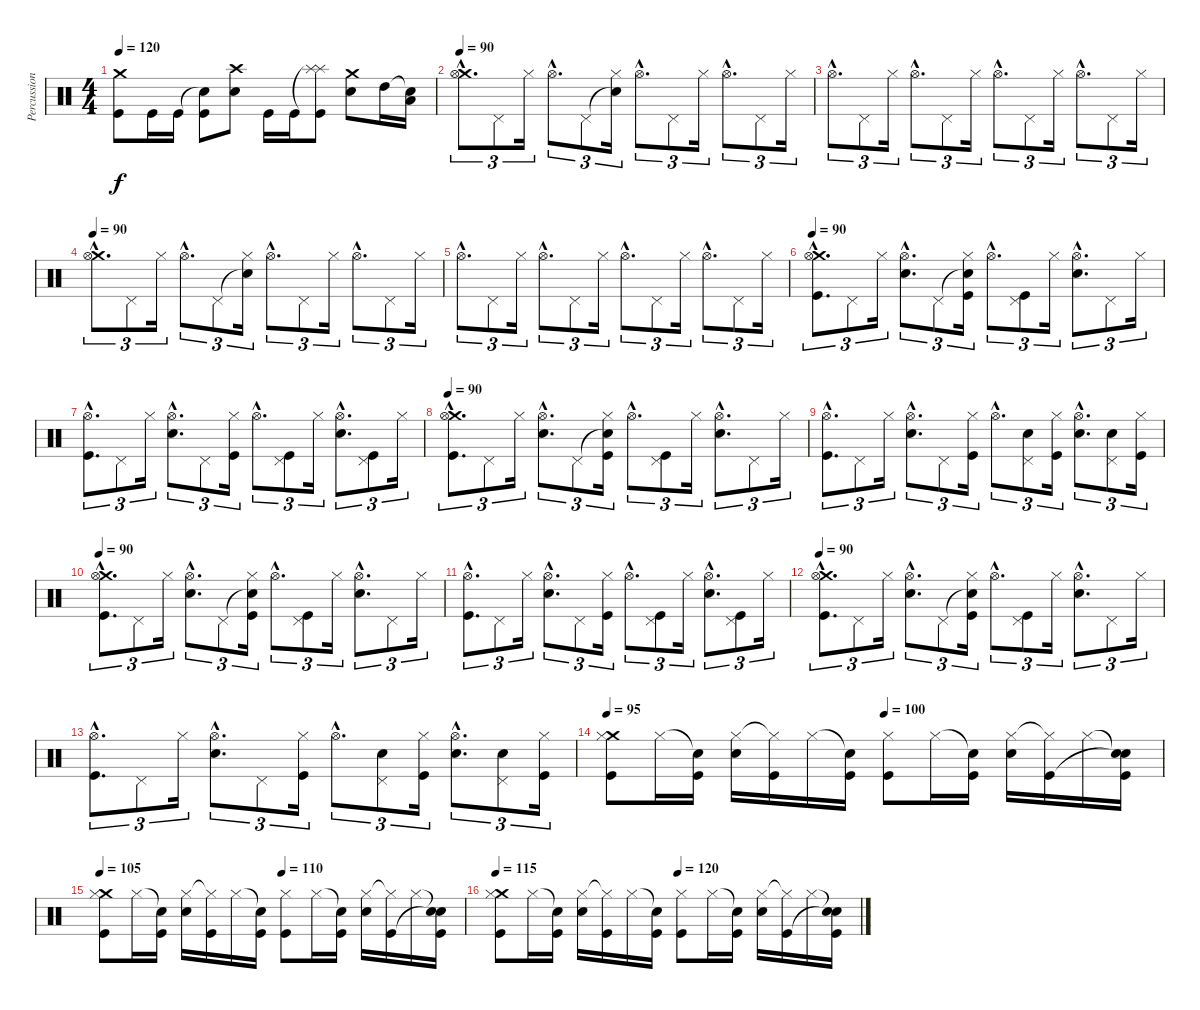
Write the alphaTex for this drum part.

\track ("Percussion" "Percussion") {instrument percussion}
\staff {score}
\articulation defaults
\ts (4 4)
\tempo 120
\clef neutral
\ks c
("Crash medium (hit)" "Kick (hit)").8{dy f} "Kick (hit)".16 "Kick (hit)".16 ("Snare (hit)"{t} "Kick (hit)").8 ("Crash high (hit)" "Electric Snare (hit)").8 "Kick (hit)".16 "Kick (hit)".16 ("Splash (hit)"{t} "Splash (hit)" "Kick (hit)").8 ("Crash medium (hit)" "Electric Snare (hit)").8 "High Tom (hit)".16 ("Snare (hit)"{t} "Low Tom (hit)").16 |
\tempo 90
("Crash medium (hit)"{hac} "Hi-Hat (open)"{hac}).8{d tu (3 2)} "Pedal Hi-Hat (hit)".8{tu (3 2)} "Hi-Hat (closed)".16{tu (3 2)} "Hi-Hat (open)"{hac}.8{d tu (3 2)} "Pedal Hi-Hat (hit)".8{tu (3 2)} ("Snare (hit)"{t} "Hi-Hat (closed)").16{tu (3 2)} "Hi-Hat (open)"{hac}.8{d tu (3 2)} "Pedal Hi-Hat (hit)".8{tu (3 2)} "Hi-Hat (closed)".16{tu (3 2)} "Hi-Hat (open)"{hac}.8{d tu (3 2)} "Pedal Hi-Hat (hit)".8{tu (3 2)} "Hi-Hat (closed)".16{tu (3 2)} |
"Hi-Hat (open)"{hac}.8{d tu (3 2)} "Pedal Hi-Hat (hit)".8{tu (3 2)} "Hi-Hat (closed)".16{tu (3 2)} "Hi-Hat (open)"{hac}.8{d tu (3 2)} "Pedal Hi-Hat (hit)".8{tu (3 2)} "Hi-Hat (closed)".16{tu (3 2)} "Hi-Hat (open)"{hac}.8{d tu (3 2)} "Pedal Hi-Hat (hit)".8{tu (3 2)} "Hi-Hat (closed)".16{tu (3 2)} "Hi-Hat (open)"{hac}.8{d tu (3 2)} "Pedal Hi-Hat (hit)".8{tu (3 2)} "Hi-Hat (closed)".16{tu (3 2)} |
\tempo 90
("Crash medium (hit)"{hac} "Hi-Hat (open)"{hac}).8{d tu (3 2)} "Pedal Hi-Hat (hit)".8{tu (3 2)} "Hi-Hat (closed)".16{tu (3 2)} "Hi-Hat (open)"{hac}.8{d tu (3 2)} "Pedal Hi-Hat (hit)".8{tu (3 2)} ("Snare (hit)"{t} "Hi-Hat (closed)").16{tu (3 2)} "Hi-Hat (open)"{hac}.8{d tu (3 2)} "Pedal Hi-Hat (hit)".8{tu (3 2)} "Hi-Hat (closed)".16{tu (3 2)} "Hi-Hat (open)"{hac}.8{d tu (3 2)} "Pedal Hi-Hat (hit)".8{tu (3 2)} "Hi-Hat (closed)".16{tu (3 2)} |
"Hi-Hat (open)"{hac}.8{d tu (3 2)} "Pedal Hi-Hat (hit)".8{tu (3 2)} "Hi-Hat (closed)".16{tu (3 2)} "Hi-Hat (open)"{hac}.8{d tu (3 2)} "Pedal Hi-Hat (hit)".8{tu (3 2)} "Hi-Hat (closed)".16{tu (3 2)} "Hi-Hat (open)"{hac}.8{d tu (3 2)} "Pedal Hi-Hat (hit)".8{tu (3 2)} "Hi-Hat (closed)".16{tu (3 2)} "Hi-Hat (open)"{hac}.8{d tu (3 2)} "Pedal Hi-Hat (hit)".8{tu (3 2)} "Hi-Hat (closed)".16{tu (3 2)} |
\tempo 90
("Crash medium (hit)"{hac} "Hi-Hat (open)"{hac} "Kick (hit)"{hac}).8{d tu (3 2)} "Pedal Hi-Hat (hit)".8{tu (3 2)} "Hi-Hat (closed)".16{tu (3 2)} ("Hi-Hat (open)"{hac} "Electric Snare (hit)"{hac}).8{d tu (3 2)} "Pedal Hi-Hat (hit)".8{tu (3 2)} ("Snare (hit)"{t} "Hi-Hat (closed)" "Kick (hit)").16{tu (3 2)} "Hi-Hat (open)"{hac}.8{d tu (3 2)} ("Pedal Hi-Hat (hit)" "Kick (hit)").8{tu (3 2)} "Hi-Hat (closed)".16{tu (3 2)} ("Hi-Hat (open)"{hac} "Electric Snare (hit)"{hac}).8{d tu (3 2)} "Pedal Hi-Hat (hit)".8{tu (3 2)} "Hi-Hat (closed)".16{tu (3 2)} |
("Hi-Hat (open)"{hac} "Kick (hit)"{hac}).8{d tu (3 2)} "Pedal Hi-Hat (hit)".8{tu (3 2)} "Hi-Hat (closed)".16{tu (3 2)} ("Hi-Hat (open)"{hac} "Electric Snare (hit)"{hac}).8{d tu (3 2)} "Pedal Hi-Hat (hit)".8{tu (3 2)} ("Hi-Hat (closed)" "Kick (hit)").16{tu (3 2)} "Hi-Hat (open)"{hac}.8{d tu (3 2)} ("Pedal Hi-Hat (hit)" "Kick (hit)").8{tu (3 2)} "Hi-Hat (closed)".16{tu (3 2)} ("Hi-Hat (open)"{hac} "Electric Snare (hit)"{hac}).8{d tu (3 2)} ("Pedal Hi-Hat (hit)" "Kick (hit)").8{tu (3 2)} "Hi-Hat (closed)".16{tu (3 2)} |
\tempo 90
("Crash medium (hit)"{hac} "Hi-Hat (open)"{hac} "Kick (hit)"{hac}).8{d tu (3 2)} "Pedal Hi-Hat (hit)".8{tu (3 2)} "Hi-Hat (closed)".16{tu (3 2)} ("Hi-Hat (open)"{hac} "Electric Snare (hit)"{hac}).8{d tu (3 2)} "Pedal Hi-Hat (hit)".8{tu (3 2)} ("Snare (hit)"{t} "Hi-Hat (closed)" "Kick (hit)").16{tu (3 2)} "Hi-Hat (open)"{hac}.8{d tu (3 2)} ("Pedal Hi-Hat (hit)" "Kick (hit)").8{tu (3 2)} "Hi-Hat (closed)".16{tu (3 2)} ("Hi-Hat (open)"{hac} "Electric Snare (hit)"{hac}).8{d tu (3 2)} "Pedal Hi-Hat (hit)".8{tu (3 2)} "Hi-Hat (closed)".16{tu (3 2)} |
("Hi-Hat (open)"{hac} "Kick (hit)"{hac}).8{d tu (3 2)} "Pedal Hi-Hat (hit)".8{tu (3 2)} "Hi-Hat (closed)".16{tu (3 2)} ("Hi-Hat (open)"{hac} "Electric Snare (hit)"{hac}).8{d tu (3 2)} "Pedal Hi-Hat (hit)".8{tu (3 2)} ("Hi-Hat (closed)" "Kick (hit)").16{tu (3 2)} "Hi-Hat (open)"{hac}.8{d tu (3 2)} ("Pedal Hi-Hat (hit)" "Electric Snare (hit)").8{tu (3 2)} ("Hi-Hat (closed)" "Kick (hit)").16{tu (3 2)} ("Hi-Hat (open)"{hac} "Electric Snare (hit)"{hac}).8{d tu (3 2)} ("Pedal Hi-Hat (hit)" "Electric Snare (hit)").8{tu (3 2)} ("Hi-Hat (closed)" "Kick (hit)").16{tu (3 2)} |
\tempo 90
("Crash medium (hit)"{hac} "Hi-Hat (open)"{hac} "Kick (hit)"{hac}).8{d tu (3 2)} "Pedal Hi-Hat (hit)".8{tu (3 2)} "Hi-Hat (closed)".16{tu (3 2)} ("Hi-Hat (open)"{hac} "Electric Snare (hit)"{hac}).8{d tu (3 2)} "Pedal Hi-Hat (hit)".8{tu (3 2)} ("Snare (hit)"{t} "Hi-Hat (closed)" "Kick (hit)").16{tu (3 2)} "Hi-Hat (open)"{hac}.8{d tu (3 2)} ("Pedal Hi-Hat (hit)" "Kick (hit)").8{tu (3 2)} "Hi-Hat (closed)".16{tu (3 2)} ("Hi-Hat (open)"{hac} "Electric Snare (hit)"{hac}).8{d tu (3 2)} "Pedal Hi-Hat (hit)".8{tu (3 2)} "Hi-Hat (closed)".16{tu (3 2)} |
("Hi-Hat (open)"{hac} "Kick (hit)"{hac}).8{d tu (3 2)} "Pedal Hi-Hat (hit)".8{tu (3 2)} "Hi-Hat (closed)".16{tu (3 2)} ("Hi-Hat (open)"{hac} "Electric Snare (hit)"{hac}).8{d tu (3 2)} "Pedal Hi-Hat (hit)".8{tu (3 2)} ("Hi-Hat (closed)" "Kick (hit)").16{tu (3 2)} "Hi-Hat (open)"{hac}.8{d tu (3 2)} ("Pedal Hi-Hat (hit)" "Kick (hit)").8{tu (3 2)} "Hi-Hat (closed)".16{tu (3 2)} ("Hi-Hat (open)"{hac} "Electric Snare (hit)"{hac}).8{d tu (3 2)} ("Pedal Hi-Hat (hit)" "Kick (hit)").8{tu (3 2)} "Hi-Hat (closed)".16{tu (3 2)} |
\tempo 90
("Crash medium (hit)"{hac} "Hi-Hat (open)"{hac} "Kick (hit)"{hac}).8{d tu (3 2)} "Pedal Hi-Hat (hit)".8{tu (3 2)} "Hi-Hat (closed)".16{tu (3 2)} ("Hi-Hat (open)"{hac} "Electric Snare (hit)"{hac}).8{d tu (3 2)} "Pedal Hi-Hat (hit)".8{tu (3 2)} ("Snare (hit)"{t} "Hi-Hat (closed)" "Kick (hit)").16{tu (3 2)} "Hi-Hat (open)"{hac}.8{d tu (3 2)} ("Pedal Hi-Hat (hit)" "Kick (hit)").8{tu (3 2)} "Hi-Hat (closed)".16{tu (3 2)} ("Hi-Hat (open)"{hac} "Electric Snare (hit)"{hac}).8{d tu (3 2)} "Pedal Hi-Hat (hit)".8{tu (3 2)} "Hi-Hat (closed)".16{tu (3 2)} |
("Hi-Hat (open)"{hac} "Kick (hit)"{hac}).8{d tu (3 2)} "Pedal Hi-Hat (hit)".8{tu (3 2)} "Hi-Hat (closed)".16{tu (3 2)} ("Hi-Hat (open)"{hac} "Electric Snare (hit)"{hac}).8{d tu (3 2)} "Pedal Hi-Hat (hit)".8{tu (3 2)} ("Hi-Hat (closed)" "Kick (hit)").16{tu (3 2)} "Hi-Hat (open)"{hac}.8{d tu (3 2)} ("Pedal Hi-Hat (hit)" "Electric Snare (hit)").8{tu (3 2)} ("Hi-Hat (closed)" "Kick (hit)").16{tu (3 2)} ("Hi-Hat (open)"{hac} "Electric Snare (hit)"{hac}).8{d tu (3 2)} ("Pedal Hi-Hat (hit)" "Electric Snare (hit)").8{tu (3 2)} ("Hi-Hat (closed)" "Kick (hit)").16{tu (3 2)} |
\tempo 95
\tempo (100 0.5)
("Crash medium (hit)" "Hi-Hat (closed)" "Kick (hit)").8 "Hi-Hat (closed)".16 ("Snare (hit)"{t} "Kick (hit)").16 ("Hi-Hat (closed)" "Electric Snare (hit)").16 ("Hi-Hat (closed)"{t} "Kick (hit)").16 "Hi-Hat (closed)".16 ("Snare (hit)"{t} "Kick (hit)").16 ("Hi-Hat (closed)" "Kick (hit)").8 "Hi-Hat (closed)".16 ("Snare (hit)"{t} "Kick (hit)").16 ("Hi-Hat (closed)" "Electric Snare (hit)").16 ("Hi-Hat (closed)"{t} "Kick (hit)").16 "Hi-Hat (closed)".16 ("Snare (hit)"{t} "Snare (hit)"{t} "Kick (hit)").16 |
\tempo 105
\tempo (110 0.5)
("Crash medium (hit)" "Hi-Hat (closed)" "Kick (hit)").8 "Hi-Hat (closed)".16 ("Snare (hit)"{t} "Kick (hit)").16 ("Hi-Hat (closed)" "Electric Snare (hit)").16 ("Hi-Hat (closed)"{t} "Kick (hit)").16 "Hi-Hat (closed)".16 ("Snare (hit)"{t} "Kick (hit)").16 ("Hi-Hat (closed)" "Kick (hit)").8 "Hi-Hat (closed)".16 ("Snare (hit)"{t} "Kick (hit)").16 ("Hi-Hat (closed)" "Electric Snare (hit)").16 ("Hi-Hat (closed)"{t} "Kick (hit)").16 "Hi-Hat (closed)".16 ("Snare (hit)"{t} "Snare (hit)"{t} "Kick (hit)").16 |
\tempo 115
\tempo (120 0.5)
("Crash medium (hit)" "Hi-Hat (closed)" "Kick (hit)").8 "Hi-Hat (closed)".16 ("Snare (hit)"{t} "Kick (hit)").16 ("Hi-Hat (closed)" "Electric Snare (hit)").16 ("Hi-Hat (closed)"{t} "Kick (hit)").16 "Hi-Hat (closed)".16 ("Snare (hit)"{t} "Kick (hit)").16 ("Hi-Hat (closed)" "Kick (hit)").8 "Hi-Hat (closed)".16 ("Snare (hit)"{t} "Kick (hit)").16 ("Hi-Hat (closed)" "Electric Snare (hit)").16 ("Hi-Hat (closed)"{t} "Kick (hit)").16 "Hi-Hat (closed)".16 ("Snare (hit)"{t} "Snare (hit)"{t} "Kick (hit)").16
